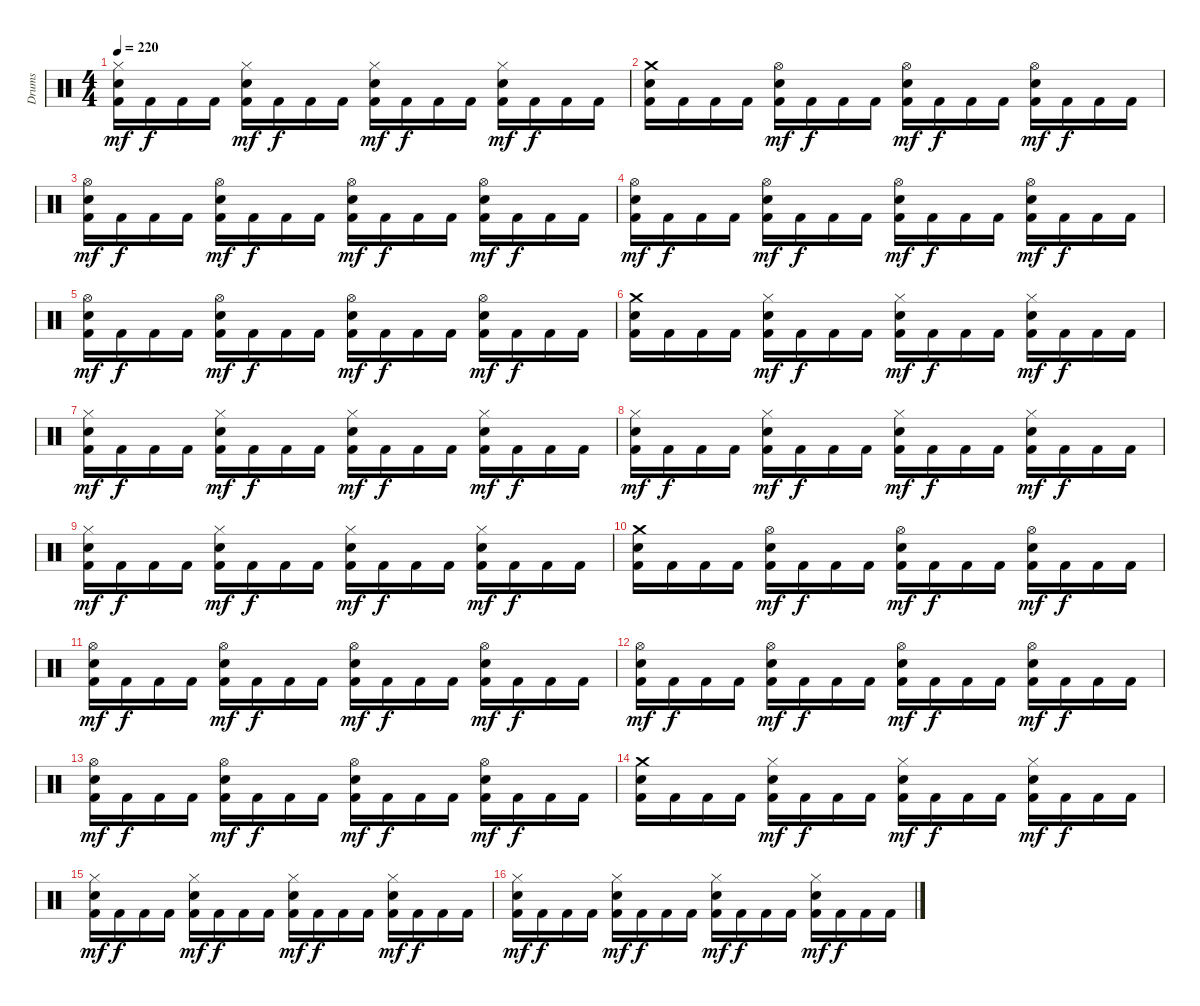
\track ("Drums" "Drums") {instrument percussion}
\staff {score}
\articulation defaults
\ts (4 4)
\tempo 220
\clef neutral
\ks c
("Hi-Hat (closed)" "Electric Snare (hit)" "Kick (hit) 2").16{dy mf} "Kick (hit) 2".16{dy f} "Kick (hit) 2".16 "Kick (hit) 2".16 ("Hi-Hat (closed)" "Electric Snare (hit)" "Kick (hit) 2").16{dy mf} "Kick (hit) 2".16{dy f} "Kick (hit) 2".16 "Kick (hit) 2".16 ("Hi-Hat (closed)" "Electric Snare (hit)" "Kick (hit) 2").16{dy mf} "Kick (hit) 2".16{dy f} "Kick (hit) 2".16 "Kick (hit) 2".16 ("Hi-Hat (closed)" "Electric Snare (hit)" "Kick (hit) 2").16{dy mf} "Kick (hit) 2".16{dy f} "Kick (hit) 2".16 "Kick (hit) 2".16 |
("Crash medium (hit)" "Electric Snare (hit)" "Kick (hit) 2").16 "Kick (hit) 2".16 "Kick (hit) 2".16 "Kick (hit) 2".16 ("Hi-Hat (open)" "Electric Snare (hit)" "Kick (hit) 2").16{dy mf} "Kick (hit) 2".16{dy f} "Kick (hit) 2".16 "Kick (hit) 2".16 ("Hi-Hat (open)" "Electric Snare (hit)" "Kick (hit) 2").16{dy mf} "Kick (hit) 2".16{dy f} "Kick (hit) 2".16 "Kick (hit) 2".16 ("Hi-Hat (open)" "Electric Snare (hit)" "Kick (hit) 2").16{dy mf} "Kick (hit) 2".16{dy f} "Kick (hit) 2".16 "Kick (hit) 2".16 |
("Hi-Hat (open)" "Electric Snare (hit)" "Kick (hit) 2").16{dy mf} "Kick (hit) 2".16{dy f} "Kick (hit) 2".16 "Kick (hit) 2".16 ("Hi-Hat (open)" "Electric Snare (hit)" "Kick (hit) 2").16{dy mf} "Kick (hit) 2".16{dy f} "Kick (hit) 2".16 "Kick (hit) 2".16 ("Hi-Hat (open)" "Electric Snare (hit)" "Kick (hit) 2").16{dy mf} "Kick (hit) 2".16{dy f} "Kick (hit) 2".16 "Kick (hit) 2".16 ("Hi-Hat (open)" "Electric Snare (hit)" "Kick (hit) 2").16{dy mf} "Kick (hit) 2".16{dy f} "Kick (hit) 2".16 "Kick (hit) 2".16 |
("Hi-Hat (open)" "Electric Snare (hit)" "Kick (hit) 2").16{dy mf} "Kick (hit) 2".16{dy f} "Kick (hit) 2".16 "Kick (hit) 2".16 ("Hi-Hat (open)" "Electric Snare (hit)" "Kick (hit) 2").16{dy mf} "Kick (hit) 2".16{dy f} "Kick (hit) 2".16 "Kick (hit) 2".16 ("Hi-Hat (open)" "Electric Snare (hit)" "Kick (hit) 2").16{dy mf} "Kick (hit) 2".16{dy f} "Kick (hit) 2".16 "Kick (hit) 2".16 ("Hi-Hat (open)" "Electric Snare (hit)" "Kick (hit) 2").16{dy mf} "Kick (hit) 2".16{dy f} "Kick (hit) 2".16 "Kick (hit) 2".16 |
("Hi-Hat (open)" "Electric Snare (hit)" "Kick (hit) 2").16{dy mf} "Kick (hit) 2".16{dy f} "Kick (hit) 2".16 "Kick (hit) 2".16 ("Hi-Hat (open)" "Electric Snare (hit)" "Kick (hit) 2").16{dy mf} "Kick (hit) 2".16{dy f} "Kick (hit) 2".16 "Kick (hit) 2".16 ("Hi-Hat (open)" "Electric Snare (hit)" "Kick (hit) 2").16{dy mf} "Kick (hit) 2".16{dy f} "Kick (hit) 2".16 "Kick (hit) 2".16 ("Hi-Hat (open)" "Electric Snare (hit)" "Kick (hit) 2").16{dy mf} "Kick (hit) 2".16{dy f} "Kick (hit) 2".16 "Kick (hit) 2".16 |
("Crash medium (hit)" "Electric Snare (hit)" "Kick (hit) 2").16 "Kick (hit) 2".16 "Kick (hit) 2".16 "Kick (hit) 2".16 ("Hi-Hat (closed)" "Electric Snare (hit)" "Kick (hit) 2").16{dy mf} "Kick (hit) 2".16{dy f} "Kick (hit) 2".16 "Kick (hit) 2".16 ("Hi-Hat (closed)" "Electric Snare (hit)" "Kick (hit) 2").16{dy mf} "Kick (hit) 2".16{dy f} "Kick (hit) 2".16 "Kick (hit) 2".16 ("Hi-Hat (closed)" "Electric Snare (hit)" "Kick (hit) 2").16{dy mf} "Kick (hit) 2".16{dy f} "Kick (hit) 2".16 "Kick (hit) 2".16 |
("Hi-Hat (closed)" "Electric Snare (hit)" "Kick (hit) 2").16{dy mf} "Kick (hit) 2".16{dy f} "Kick (hit) 2".16 "Kick (hit) 2".16 ("Hi-Hat (closed)" "Electric Snare (hit)" "Kick (hit) 2").16{dy mf} "Kick (hit) 2".16{dy f} "Kick (hit) 2".16 "Kick (hit) 2".16 ("Hi-Hat (closed)" "Electric Snare (hit)" "Kick (hit) 2").16{dy mf} "Kick (hit) 2".16{dy f} "Kick (hit) 2".16 "Kick (hit) 2".16 ("Hi-Hat (closed)" "Electric Snare (hit)" "Kick (hit) 2").16{dy mf} "Kick (hit) 2".16{dy f} "Kick (hit) 2".16 "Kick (hit) 2".16 |
("Hi-Hat (closed)" "Electric Snare (hit)" "Kick (hit) 2").16{dy mf} "Kick (hit) 2".16{dy f} "Kick (hit) 2".16 "Kick (hit) 2".16 ("Hi-Hat (closed)" "Electric Snare (hit)" "Kick (hit) 2").16{dy mf} "Kick (hit) 2".16{dy f} "Kick (hit) 2".16 "Kick (hit) 2".16 ("Hi-Hat (closed)" "Electric Snare (hit)" "Kick (hit) 2").16{dy mf} "Kick (hit) 2".16{dy f} "Kick (hit) 2".16 "Kick (hit) 2".16 ("Hi-Hat (closed)" "Electric Snare (hit)" "Kick (hit) 2").16{dy mf} "Kick (hit) 2".16{dy f} "Kick (hit) 2".16 "Kick (hit) 2".16 |
("Hi-Hat (closed)" "Electric Snare (hit)" "Kick (hit) 2").16{dy mf} "Kick (hit) 2".16{dy f} "Kick (hit) 2".16 "Kick (hit) 2".16 ("Hi-Hat (closed)" "Electric Snare (hit)" "Kick (hit) 2").16{dy mf} "Kick (hit) 2".16{dy f} "Kick (hit) 2".16 "Kick (hit) 2".16 ("Hi-Hat (closed)" "Electric Snare (hit)" "Kick (hit) 2").16{dy mf} "Kick (hit) 2".16{dy f} "Kick (hit) 2".16 "Kick (hit) 2".16 ("Hi-Hat (closed)" "Electric Snare (hit)" "Kick (hit) 2").16{dy mf} "Kick (hit) 2".16{dy f} "Kick (hit) 2".16 "Kick (hit) 2".16 |
("Crash medium (hit)" "Electric Snare (hit)" "Kick (hit) 2").16 "Kick (hit) 2".16 "Kick (hit) 2".16 "Kick (hit) 2".16 ("Hi-Hat (open)" "Electric Snare (hit)" "Kick (hit) 2").16{dy mf} "Kick (hit) 2".16{dy f} "Kick (hit) 2".16 "Kick (hit) 2".16 ("Hi-Hat (open)" "Electric Snare (hit)" "Kick (hit) 2").16{dy mf} "Kick (hit) 2".16{dy f} "Kick (hit) 2".16 "Kick (hit) 2".16 ("Hi-Hat (open)" "Electric Snare (hit)" "Kick (hit) 2").16{dy mf} "Kick (hit) 2".16{dy f} "Kick (hit) 2".16 "Kick (hit) 2".16 |
("Hi-Hat (open)" "Electric Snare (hit)" "Kick (hit) 2").16{dy mf} "Kick (hit) 2".16{dy f} "Kick (hit) 2".16 "Kick (hit) 2".16 ("Hi-Hat (open)" "Electric Snare (hit)" "Kick (hit) 2").16{dy mf} "Kick (hit) 2".16{dy f} "Kick (hit) 2".16 "Kick (hit) 2".16 ("Hi-Hat (open)" "Electric Snare (hit)" "Kick (hit) 2").16{dy mf} "Kick (hit) 2".16{dy f} "Kick (hit) 2".16 "Kick (hit) 2".16 ("Hi-Hat (open)" "Electric Snare (hit)" "Kick (hit) 2").16{dy mf} "Kick (hit) 2".16{dy f} "Kick (hit) 2".16 "Kick (hit) 2".16 |
("Hi-Hat (open)" "Electric Snare (hit)" "Kick (hit) 2").16{dy mf} "Kick (hit) 2".16{dy f} "Kick (hit) 2".16 "Kick (hit) 2".16 ("Hi-Hat (open)" "Electric Snare (hit)" "Kick (hit) 2").16{dy mf} "Kick (hit) 2".16{dy f} "Kick (hit) 2".16 "Kick (hit) 2".16 ("Hi-Hat (open)" "Electric Snare (hit)" "Kick (hit) 2").16{dy mf} "Kick (hit) 2".16{dy f} "Kick (hit) 2".16 "Kick (hit) 2".16 ("Hi-Hat (open)" "Electric Snare (hit)" "Kick (hit) 2").16{dy mf} "Kick (hit) 2".16{dy f} "Kick (hit) 2".16 "Kick (hit) 2".16 |
("Hi-Hat (open)" "Electric Snare (hit)" "Kick (hit) 2").16{dy mf} "Kick (hit) 2".16{dy f} "Kick (hit) 2".16 "Kick (hit) 2".16 ("Hi-Hat (open)" "Electric Snare (hit)" "Kick (hit) 2").16{dy mf} "Kick (hit) 2".16{dy f} "Kick (hit) 2".16 "Kick (hit) 2".16 ("Hi-Hat (open)" "Electric Snare (hit)" "Kick (hit) 2").16{dy mf} "Kick (hit) 2".16{dy f} "Kick (hit) 2".16 "Kick (hit) 2".16 ("Hi-Hat (open)" "Electric Snare (hit)" "Kick (hit) 2").16{dy mf} "Kick (hit) 2".16{dy f} "Kick (hit) 2".16 "Kick (hit) 2".16 |
("Crash medium (hit)" "Electric Snare (hit)" "Kick (hit) 2").16 "Kick (hit) 2".16 "Kick (hit) 2".16 "Kick (hit) 2".16 ("Hi-Hat (closed)" "Electric Snare (hit)" "Kick (hit) 2").16{dy mf} "Kick (hit) 2".16{dy f} "Kick (hit) 2".16 "Kick (hit) 2".16 ("Hi-Hat (closed)" "Electric Snare (hit)" "Kick (hit) 2").16{dy mf} "Kick (hit) 2".16{dy f} "Kick (hit) 2".16 "Kick (hit) 2".16 ("Hi-Hat (closed)" "Electric Snare (hit)" "Kick (hit) 2").16{dy mf} "Kick (hit) 2".16{dy f} "Kick (hit) 2".16 "Kick (hit) 2".16 |
("Hi-Hat (closed)" "Electric Snare (hit)" "Kick (hit) 2").16{dy mf} "Kick (hit) 2".16{dy f} "Kick (hit) 2".16 "Kick (hit) 2".16 ("Hi-Hat (closed)" "Electric Snare (hit)" "Kick (hit) 2").16{dy mf} "Kick (hit) 2".16{dy f} "Kick (hit) 2".16 "Kick (hit) 2".16 ("Hi-Hat (closed)" "Electric Snare (hit)" "Kick (hit) 2").16{dy mf} "Kick (hit) 2".16{dy f} "Kick (hit) 2".16 "Kick (hit) 2".16 ("Hi-Hat (closed)" "Electric Snare (hit)" "Kick (hit) 2").16{dy mf} "Kick (hit) 2".16{dy f} "Kick (hit) 2".16 "Kick (hit) 2".16 |
("Hi-Hat (closed)" "Electric Snare (hit)" "Kick (hit) 2").16{dy mf} "Kick (hit) 2".16{dy f} "Kick (hit) 2".16 "Kick (hit) 2".16 ("Hi-Hat (closed)" "Electric Snare (hit)" "Kick (hit) 2").16{dy mf} "Kick (hit) 2".16{dy f} "Kick (hit) 2".16 "Kick (hit) 2".16 ("Hi-Hat (closed)" "Electric Snare (hit)" "Kick (hit) 2").16{dy mf} "Kick (hit) 2".16{dy f} "Kick (hit) 2".16 "Kick (hit) 2".16 ("Hi-Hat (closed)" "Electric Snare (hit)" "Kick (hit) 2").16{dy mf} "Kick (hit) 2".16{dy f} "Kick (hit) 2".16 "Kick (hit) 2".16
